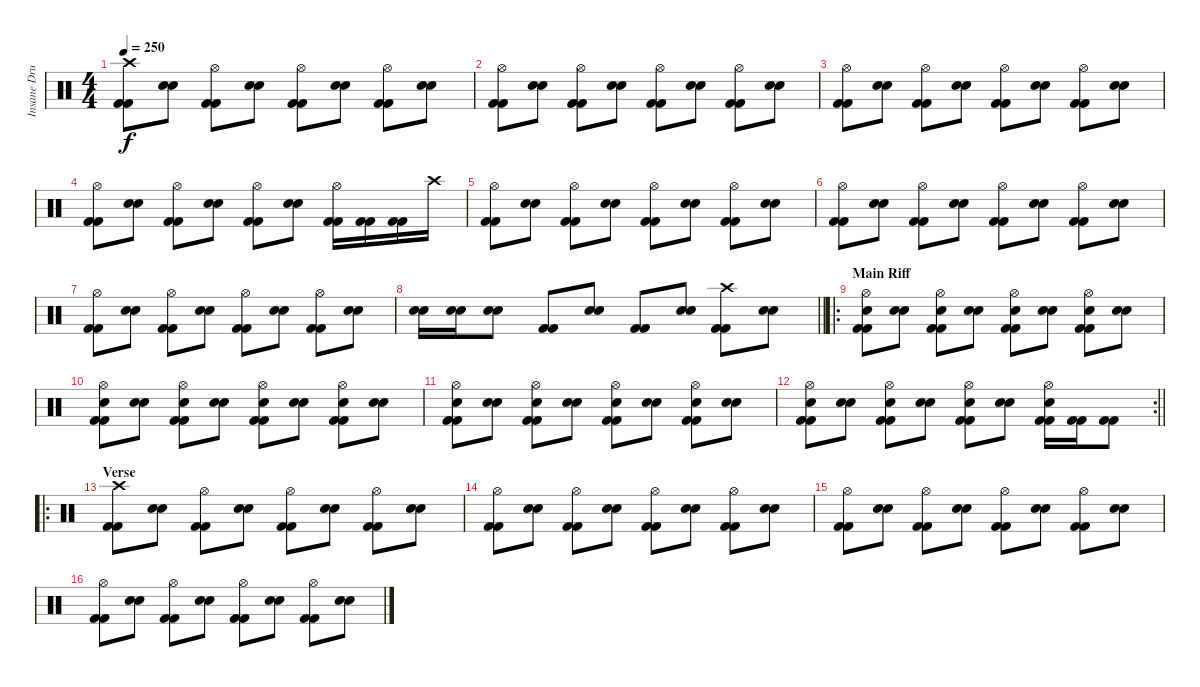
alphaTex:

\track ("Insane Drums" "Insane Dru") {instrument percussion}
\staff {score}
\articulation defaults
\ts (4 4)
\tempo 250
\clef neutral
\ks c
("Kick (hit) 2" "Kick (hit) 2" "Crash high (hit)").8{dy f} ("Electric Snare (hit)" "Electric Snare (hit)").8 ("Kick (hit) 2" "Kick (hit) 2" "Hi-Hat (open)").8 ("Electric Snare (hit)" "Electric Snare (hit)").8 ("Kick (hit) 2" "Kick (hit) 2" "Hi-Hat (open)").8 ("Electric Snare (hit)" "Electric Snare (hit)").8 ("Kick (hit) 2" "Kick (hit) 2" "Hi-Hat (open)").8 ("Electric Snare (hit)" "Electric Snare (hit)").8 |
("Kick (hit) 2" "Kick (hit) 2" "Hi-Hat (open)").8 ("Electric Snare (hit)" "Electric Snare (hit)").8 ("Kick (hit) 2" "Kick (hit) 2" "Hi-Hat (open)").8 ("Electric Snare (hit)" "Electric Snare (hit)").8 ("Kick (hit) 2" "Kick (hit) 2" "Hi-Hat (open)").8 ("Electric Snare (hit)" "Electric Snare (hit)").8 ("Kick (hit) 2" "Kick (hit) 2" "Hi-Hat (open)").8 ("Electric Snare (hit)" "Electric Snare (hit)").8 |
("Kick (hit) 2" "Kick (hit) 2" "Hi-Hat (open)").8 ("Electric Snare (hit)" "Electric Snare (hit)").8 ("Kick (hit) 2" "Kick (hit) 2" "Hi-Hat (open)").8 ("Electric Snare (hit)" "Electric Snare (hit)").8 ("Kick (hit) 2" "Kick (hit) 2" "Hi-Hat (open)").8 ("Electric Snare (hit)" "Electric Snare (hit)").8 ("Kick (hit) 2" "Kick (hit) 2" "Hi-Hat (open)").8 ("Electric Snare (hit)" "Electric Snare (hit)").8 |
("Kick (hit) 2" "Kick (hit) 2" "Hi-Hat (open)").8 ("Electric Snare (hit)" "Electric Snare (hit)").8 ("Kick (hit) 2" "Kick (hit) 2" "Hi-Hat (open)").8 ("Electric Snare (hit)" "Electric Snare (hit)").8 ("Kick (hit) 2" "Kick (hit) 2" "Hi-Hat (open)").8 ("Electric Snare (hit)" "Electric Snare (hit)").8 ("Kick (hit) 2" "Kick (hit) 2" "Hi-Hat (open)").16 ("Kick (hit) 2" "Kick (hit) 2").16 ("Kick (hit) 2" "Kick (hit) 2").16 "Crash high (hit)".16 |
("Kick (hit) 2" "Kick (hit) 2" "Hi-Hat (open)").8 ("Electric Snare (hit)" "Electric Snare (hit)").8 ("Kick (hit) 2" "Kick (hit) 2" "Hi-Hat (open)").8 ("Electric Snare (hit)" "Electric Snare (hit)").8 ("Kick (hit) 2" "Kick (hit) 2" "Hi-Hat (open)").8 ("Electric Snare (hit)" "Electric Snare (hit)").8 ("Kick (hit) 2" "Kick (hit) 2" "Hi-Hat (open)").8 ("Electric Snare (hit)" "Electric Snare (hit)").8 |
("Kick (hit) 2" "Kick (hit) 2" "Hi-Hat (open)").8 ("Electric Snare (hit)" "Electric Snare (hit)").8 ("Kick (hit) 2" "Kick (hit) 2" "Hi-Hat (open)").8 ("Electric Snare (hit)" "Electric Snare (hit)").8 ("Kick (hit) 2" "Kick (hit) 2" "Hi-Hat (open)").8 ("Electric Snare (hit)" "Electric Snare (hit)").8 ("Kick (hit) 2" "Kick (hit) 2" "Hi-Hat (open)").8 ("Electric Snare (hit)" "Electric Snare (hit)").8 |
("Kick (hit) 2" "Kick (hit) 2" "Hi-Hat (open)").8 ("Electric Snare (hit)" "Electric Snare (hit)").8 ("Kick (hit) 2" "Kick (hit) 2" "Hi-Hat (open)").8 ("Electric Snare (hit)" "Electric Snare (hit)").8 ("Kick (hit) 2" "Kick (hit) 2" "Hi-Hat (open)").8 ("Electric Snare (hit)" "Electric Snare (hit)").8 ("Kick (hit) 2" "Kick (hit) 2" "Hi-Hat (open)").8 ("Electric Snare (hit)" "Electric Snare (hit)").8 |
\barLineRight lightlight
("Electric Snare (hit)" "Electric Snare (hit)").16 ("Electric Snare (hit)" "Electric Snare (hit)").16 ("Electric Snare (hit)" "Electric Snare (hit)").8 ("Kick (hit) 2" "Kick (hit) 2").8 ("Electric Snare (hit)" "Electric Snare (hit)").8 ("Kick (hit) 2" "Kick (hit) 2").8 ("Electric Snare (hit)" "Electric Snare (hit)").8 ("Kick (hit) 2" "Kick (hit) 2" "Crash high (hit)").8 ("Electric Snare (hit)" "Electric Snare (hit)").8 |
\ro
\section ("" "Main Riff")
("Kick (hit) 2" "Kick (hit) 2" "Electric Snare (hit)" "Hi-Hat (open)").8 ("Electric Snare (hit)" "Electric Snare (hit)").8 ("Kick (hit) 2" "Kick (hit) 2" "Electric Snare (hit)" "Hi-Hat (open)").8 ("Electric Snare (hit)" "Electric Snare (hit)").8 ("Kick (hit) 2" "Kick (hit) 2" "Electric Snare (hit)" "Hi-Hat (open)").8 ("Electric Snare (hit)" "Electric Snare (hit)").8 ("Kick (hit) 2" "Kick (hit) 2" "Electric Snare (hit)" "Hi-Hat (open)").8 ("Electric Snare (hit)" "Electric Snare (hit)").8 |
("Kick (hit) 2" "Kick (hit) 2" "Electric Snare (hit)" "Hi-Hat (open)").8 ("Electric Snare (hit)" "Electric Snare (hit)").8 ("Kick (hit) 2" "Kick (hit) 2" "Electric Snare (hit)" "Hi-Hat (open)").8 ("Electric Snare (hit)" "Electric Snare (hit)").8 ("Kick (hit) 2" "Kick (hit) 2" "Electric Snare (hit)" "Hi-Hat (open)").8 ("Electric Snare (hit)" "Electric Snare (hit)").8 ("Kick (hit) 2" "Kick (hit) 2" "Electric Snare (hit)" "Hi-Hat (open)").8 ("Electric Snare (hit)" "Electric Snare (hit)").8 |
("Kick (hit) 2" "Kick (hit) 2" "Electric Snare (hit)" "Hi-Hat (open)").8 ("Electric Snare (hit)" "Electric Snare (hit)").8 ("Kick (hit) 2" "Kick (hit) 2" "Electric Snare (hit)" "Hi-Hat (open)").8 ("Electric Snare (hit)" "Electric Snare (hit)").8 ("Kick (hit) 2" "Kick (hit) 2" "Electric Snare (hit)" "Hi-Hat (open)").8 ("Electric Snare (hit)" "Electric Snare (hit)").8 ("Kick (hit) 2" "Kick (hit) 2" "Electric Snare (hit)" "Hi-Hat (open)").8 ("Electric Snare (hit)" "Electric Snare (hit)").8 |
\rc 2
\barLineRight lightlight
("Kick (hit) 2" "Kick (hit) 2" "Electric Snare (hit)" "Hi-Hat (open)").8 ("Electric Snare (hit)" "Electric Snare (hit)").8 ("Kick (hit) 2" "Kick (hit) 2" "Electric Snare (hit)" "Hi-Hat (open)").8 ("Electric Snare (hit)" "Electric Snare (hit)").8 ("Kick (hit) 2" "Kick (hit) 2" "Electric Snare (hit)" "Hi-Hat (open)").8 ("Electric Snare (hit)" "Electric Snare (hit)").8 ("Kick (hit) 2" "Kick (hit) 2" "Electric Snare (hit)" "Hi-Hat (open)").16 ("Kick (hit) 2" "Kick (hit) 2").16 ("Kick (hit) 2" "Kick (hit) 2").8 |
\ro
\section ("" "Verse")
("Kick (hit) 2" "Kick (hit) 2" "Crash high (hit)").8 ("Electric Snare (hit)" "Electric Snare (hit)").8 ("Kick (hit) 2" "Kick (hit) 2" "Hi-Hat (open)").8 ("Electric Snare (hit)" "Electric Snare (hit)").8 ("Kick (hit) 2" "Kick (hit) 2" "Hi-Hat (open)").8 ("Electric Snare (hit)" "Electric Snare (hit)").8 ("Kick (hit) 2" "Kick (hit) 2" "Hi-Hat (open)").8 ("Electric Snare (hit)" "Electric Snare (hit)").8 |
("Kick (hit) 2" "Kick (hit) 2" "Hi-Hat (open)").8 ("Electric Snare (hit)" "Electric Snare (hit)").8 ("Kick (hit) 2" "Kick (hit) 2" "Hi-Hat (open)").8 ("Electric Snare (hit)" "Electric Snare (hit)").8 ("Kick (hit) 2" "Kick (hit) 2" "Hi-Hat (open)").8 ("Electric Snare (hit)" "Electric Snare (hit)").8 ("Kick (hit) 2" "Kick (hit) 2" "Hi-Hat (open)").8 ("Electric Snare (hit)" "Electric Snare (hit)").8 |
("Kick (hit) 2" "Kick (hit) 2" "Hi-Hat (open)").8 ("Electric Snare (hit)" "Electric Snare (hit)").8 ("Kick (hit) 2" "Kick (hit) 2" "Hi-Hat (open)").8 ("Electric Snare (hit)" "Electric Snare (hit)").8 ("Kick (hit) 2" "Kick (hit) 2" "Hi-Hat (open)").8 ("Electric Snare (hit)" "Electric Snare (hit)").8 ("Kick (hit) 2" "Kick (hit) 2" "Hi-Hat (open)").8 ("Electric Snare (hit)" "Electric Snare (hit)").8 |
("Kick (hit) 2" "Kick (hit) 2" "Hi-Hat (open)").8 ("Electric Snare (hit)" "Electric Snare (hit)").8 ("Kick (hit) 2" "Kick (hit) 2" "Hi-Hat (open)").8 ("Electric Snare (hit)" "Electric Snare (hit)").8 ("Kick (hit) 2" "Kick (hit) 2" "Hi-Hat (open)").8 ("Electric Snare (hit)" "Electric Snare (hit)").8 ("Kick (hit) 2" "Kick (hit) 2" "Hi-Hat (open)").8 ("Electric Snare (hit)" "Electric Snare (hit)").8
